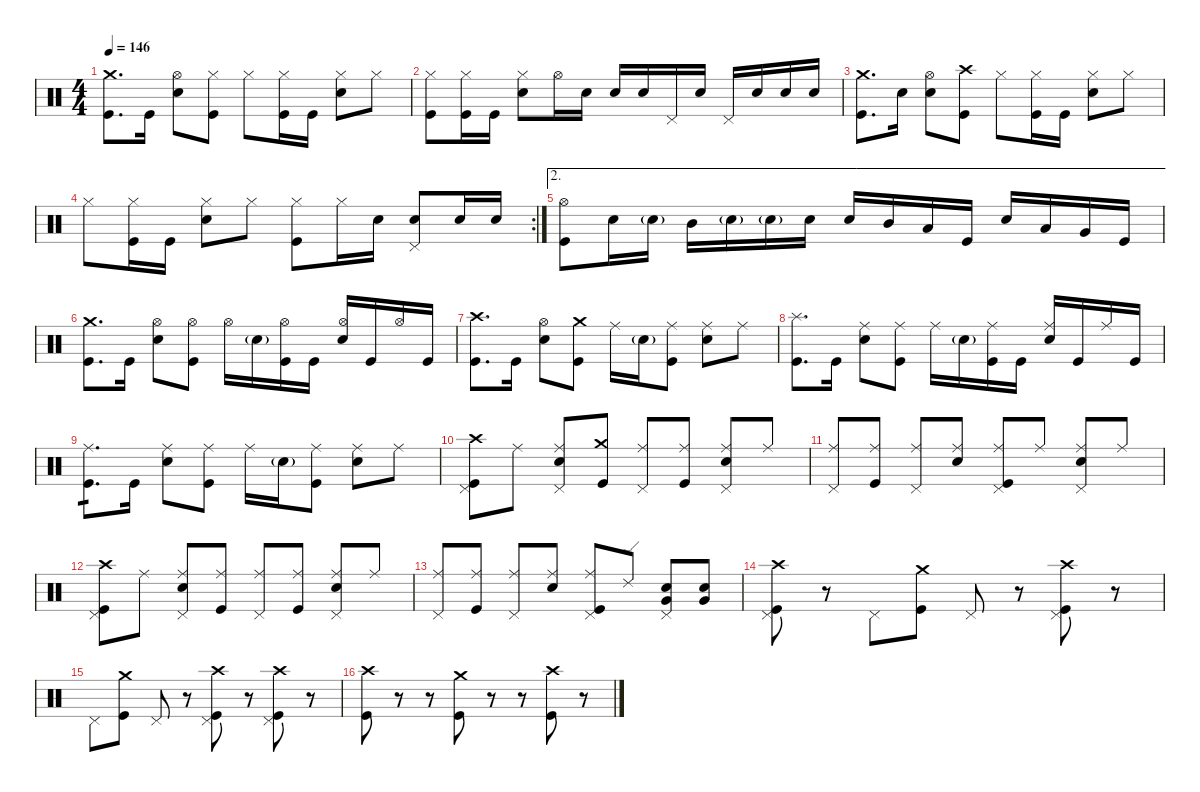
\defaultSystemsLayout 4
\hideDynamics
\bracketExtendMode nobrackets
\singleTrackTrackNamePolicy hidden
\multiTrackTrackNamePolicy hidden
\firstSystemTrackNameMode fullname
\firstSystemTrackNameOrientation horizontal
\otherSystemsTrackNameOrientation horizontal
\track ("Drums" "drm.") {instrument percussion}
\staff {score}
\articulation defaults
\ts (4 4)
\tempo 146
\clef neutral
\ks c
("Crash medium (hit)" "Kick (hit)").8{d dy f beam Down} "Kick (hit)".16{beam Down} ("Hi-Hat (open)" "Snare (hit) 2").8{beam Down} ("Hi-Hat (closed)" "Kick (hit)").8{beam Down} "Hi-Hat (closed)".8{beam Down} ("Hi-Hat (closed)" "Kick (hit)").16{beam Down} "Kick (hit)".16{beam Down} ("Hi-Hat (closed)" "Snare (hit) 2").8{beam Down} "Hi-Hat (closed)".8{beam Down} |
("Hi-Hat (closed)" "Kick (hit)").8{beam Down} ("Hi-Hat (closed)" "Kick (hit)").16{beam Down} "Kick (hit)".16{beam Down} ("Hi-Hat (closed)" "Snare (hit) 2").8{beam Down} "Hi-Hat (open)".16{beam Down} "Snare (hit) 2".16{beam Down} "Snare (hit) 2".16{beam Up} "Snare (hit) 2".16{beam Up} "Pedal Hi-Hat (hit)".16{beam Up} "Snare (hit) 2".16{beam Up} "Pedal Hi-Hat (hit)".16{beam Up} "Snare (hit) 2".16{beam Up} "Snare (hit) 2".16{beam Up} "Snare (hit) 2".16{beam Up} |
("Crash medium (hit)" "Kick (hit)").8{d beam Down} "Snare (hit) 2".16{beam Down} ("Hi-Hat (open)" "Snare (hit) 2").8{beam Down} ("Crash high (hit)" "Kick (hit)").8{beam Down} "Hi-Hat (closed)".8{beam Down} ("Hi-Hat (closed)" "Kick (hit)").16{beam Down} "Kick (hit)".16{beam Down} ("Hi-Hat (closed)" "Snare (hit) 2").8{beam Down} "Hi-Hat (closed)".8{beam Down} |
\rc 2 "Hi-Hat (closed)".8{beam Down}
("Hi-Hat (closed)" "Kick (hit)").16{beam Down} "Kick (hit)".16{beam Down} ("Hi-Hat (closed)" "Snare (hit) 2").8{beam Down} "Hi-Hat (closed)".8{beam Down} ("Hi-Hat (closed)" "Kick (hit)").8{beam Down} "Hi-Hat (closed)".16{beam Down} "Snare (hit) 2".16{beam Down} ("Pedal Hi-Hat (hit)" "Snare (hit) 2").8{beam Up} "Snare (hit) 2".16{beam Up} "Snare (hit) 2".16{beam Up} |
\ae 2
("Hi-Hat (open)" "Kick (hit)").8{beam Down} "Snare (hit) 2".16{beam Down} "Snare (hit) 2"{g}.16{dy mf beam Down} "Mid Tom (hit)".16{dy f beam Down} "Snare (hit) 2"{g}.16{dy mf beam Down} "Snare (hit) 2"{g}.16{beam Down} "Snare (hit) 2".16{dy f beam Down} "Snare (hit) 2".16{beam Up} "Mid Tom (hit)".16{beam Up} "Low Tom (hit)".16{beam Up} "Kick (hit)".16{beam Up} "Snare (hit) 2".16{beam Up} "Low Tom (hit)".16{beam Up} "Very Low Tom (hit)".16{beam Up} "Kick (hit)".16{beam Up} |
("Crash medium (hit)" "Kick (hit)").8{d beam Down} "Kick (hit)".16{beam Down} ("Hi-Hat (open)" "Snare (hit) 2").8{beam Down} ("Hi-Hat (open)" "Kick (hit)").8{beam Down} "Hi-Hat (open)".16{beam Down} "Snare (hit) 2"{g}.16{dy mf beam Down} ("Hi-Hat (open)" "Kick (hit)").16{dy f beam Down} "Kick (hit)".16{beam Down} ("Hi-Hat (open)" "Snare (hit) 2").16{beam Up} "Kick (hit)".16{beam Up} "Hi-Hat (open)".16{beam Up} "Kick (hit)".16{beam Up} |
("Crash high (hit)" "Kick (hit)").8{d beam Down} "Kick (hit)".16{beam Down} ("Hi-Hat (open)" "Snare (hit) 2").8{beam Down} ("Crash medium (hit)" "Kick (hit)").8{beam Down} "Ride (middle)".16{beam Down} "Snare (hit) 2"{g}.16{dy mf beam Down} ("Ride (middle)" "Kick (hit)").8{dy f beam Down} ("Ride (middle)" "Snare (hit) 2").8{beam Down} "Ride (middle)".8{beam Down} |
("Splash (hit)" "Kick (hit)").8{d beam Down} "Kick (hit)".16{beam Down} ("Ride (middle)" "Snare (hit) 2").8{beam Down} ("Ride (middle)" "Kick (hit)").8{beam Down} "Ride (middle)".16{beam Down} "Snare (hit) 2"{g}.16{dy mf beam Down} ("Ride (middle)" "Kick (hit)").16{dy f beam Down} "Kick (hit)".16{beam Down} ("Ride (middle)" "Snare (hit) 2").16{beam Up} "Kick (hit)".16{beam Up} "Ride (middle)".16{beam Up} "Kick (hit)".16{beam Up} |
("Ride (middle)" "Kick (hit)").8{d tp 1 beam Down} "Kick (hit)".16{beam Down} ("Ride (middle)" "Snare (hit) 2").8{beam Down} ("Ride (middle)" "Kick (hit)").8{beam Down} "Ride (middle)".16{beam Down} "Snare (hit) 2"{g}.16{dy mf beam Down} ("Ride (middle)" "Kick (hit)").8{dy f beam Down} ("Ride (middle)" "Snare (hit) 2").8{beam Down} "Ride (middle)".8{beam Down} |
("Crash high (hit)" "Pedal Hi-Hat (hit)" "Kick (hit)").8{beam Down} "Ride (middle)".8{beam Down} ("Ride (middle)" "Pedal Hi-Hat (hit)" "Snare (hit) 2").8{beam Up} ("Crash medium (hit)" "Kick (hit)").8{beam Up} ("Ride (middle)" "Pedal Hi-Hat (hit)").8{beam Up} ("Ride (middle)" "Kick (hit)").8{beam Up} ("Ride (middle)" "Pedal Hi-Hat (hit)" "Snare (hit) 2").8{beam Up} "Ride (middle)".8{beam Up} |
("Ride (middle)" "Pedal Hi-Hat (hit)").8{beam Up} ("Ride (middle)" "Kick (hit)").8{beam Up} ("Ride (middle)" "Pedal Hi-Hat (hit)").8{beam Up} ("Ride (middle)" "Snare (hit) 2").8{beam Up} ("Ride (middle)" "Pedal Hi-Hat (hit)" "Kick (hit)").8{beam Up} "Ride (middle)".8{beam Up} ("Ride (middle)" "Pedal Hi-Hat (hit)" "Snare (hit) 2").8{beam Up} "Ride (middle)".8{beam Up} |
("Crash high (hit)" "Pedal Hi-Hat (hit)" "Kick (hit)").8{beam Down} "Ride (middle)".8{beam Down} ("Ride (middle)" "Pedal Hi-Hat (hit)" "Snare (hit) 2").8{beam Up} ("Ride (middle)" "Kick (hit)").8{beam Up} ("Ride (middle)" "Pedal Hi-Hat (hit)").8{beam Up} ("Ride (middle)" "Kick (hit)").8{beam Up} ("Ride (middle)" "Pedal Hi-Hat (hit)" "Snare (hit) 2").8{beam Up} "Ride (middle)".8{beam Up} |
("Ride (middle)" "Pedal Hi-Hat (hit)").8{beam Up} ("Ride (middle)" "Kick (hit)").8{beam Up} ("Ride (middle)" "Pedal Hi-Hat (hit)").8{beam Up} ("Ride (middle)" "Snare (hit) 2").8{beam Up} ("Ride (middle)" "Pedal Hi-Hat (hit)" "Kick (hit)").8{beam Up} "Ride (edge) 2".8{beam Up} ("Snare (hit) 2" "Very Low Tom (hit)" "Pedal Hi-Hat (hit)").8{beam Up} ("Snare (hit) 2" "Very Low Tom (hit)").8{beam Up} |
("Crash high (hit)" "Pedal Hi-Hat (hit)" "Kick (hit)").8{beam Down} r.8{beam Down} "Pedal Hi-Hat (hit)".8{beam Down} ("Crash medium (hit)" "Kick (hit)").8{beam Down} "Pedal Hi-Hat (hit)".8{beam Up} r.8{beam Up} ("Crash high (hit)" "Pedal Hi-Hat (hit)" "Kick (hit)").8{beam Down} r.8{beam Down} |
"Pedal Hi-Hat (hit)".8{beam Down} ("Crash medium (hit)" "Kick (hit)").8{beam Down} "Pedal Hi-Hat (hit)".8{beam Up} r.8{beam Up} ("Crash high (hit)" "Pedal Hi-Hat (hit)" "Kick (hit)").8{beam Down} r.8{beam Down} ("Crash high (hit)" "Pedal Hi-Hat (hit)" "Kick (hit)").8{beam Down} r.8{beam Down} |
("Crash high (hit)" "Kick (hit)").8{beam Down} r.8{beam Down} r.8{beam Down} ("Crash medium (hit)" "Kick (hit)").8{beam Down} r.8{beam Down} r.8{beam Down} ("Crash high (hit)" "Kick (hit)").8{beam Down} r.8{beam Down}
